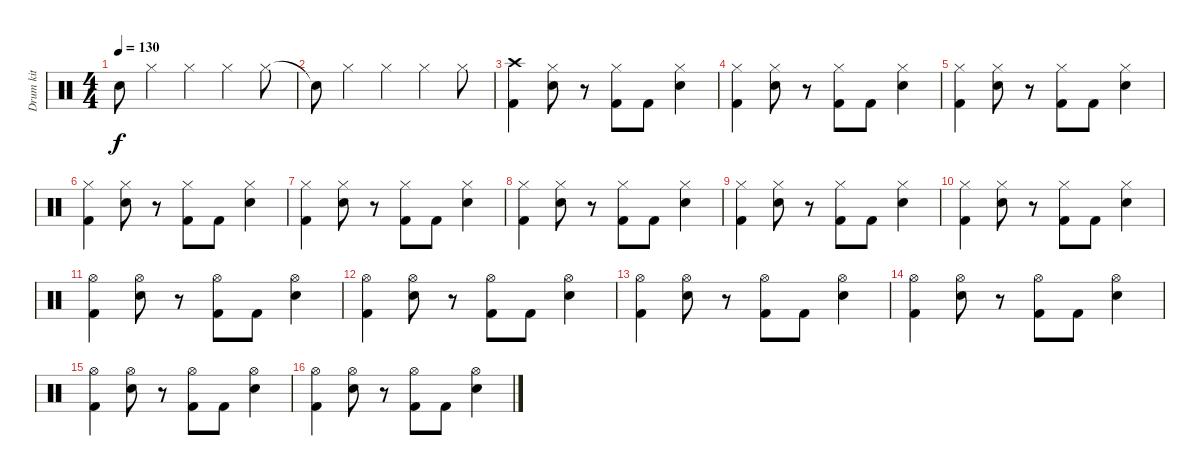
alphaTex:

\track ("Drum kit" "Drum kit") {instrument percussion}
\staff {score}
\articulation defaults
\ts (4 4)
\tempo 130
\clef neutral
\ks c "Snare (hit)"{t}.8{dy f} "Hi-Hat (closed)".4 "Hi-Hat (closed)".4 "Hi-Hat (closed)".4 "Hi-Hat (closed)".8
|
"Snare (hit)"{t}.8 "Hi-Hat (closed)".4 "Hi-Hat (closed)".4 "Hi-Hat (closed)".4 "Hi-Hat (closed)".8 |
("Crash high (hit)" "Kick (hit) 2").4 ("Hi-Hat (closed)" "Electric Snare (hit)").8 r.8 ("Hi-Hat (closed)" "Kick (hit) 2").8 "Kick (hit) 2".8 ("Hi-Hat (closed)" "Electric Snare (hit)").4 |
("Hi-Hat (closed)" "Kick (hit) 2").4 ("Hi-Hat (closed)" "Electric Snare (hit)").8 r.8 ("Hi-Hat (closed)" "Kick (hit) 2").8 "Kick (hit) 2".8 ("Hi-Hat (closed)" "Electric Snare (hit)").4 |
("Hi-Hat (closed)" "Kick (hit) 2").4 ("Hi-Hat (closed)" "Electric Snare (hit)").8 r.8 ("Hi-Hat (closed)" "Kick (hit) 2").8 "Kick (hit) 2".8 ("Hi-Hat (closed)" "Electric Snare (hit)").4 |
("Hi-Hat (closed)" "Kick (hit) 2").4 ("Hi-Hat (closed)" "Electric Snare (hit)").8 r.8 ("Hi-Hat (closed)" "Kick (hit) 2").8 "Kick (hit) 2".8 ("Hi-Hat (closed)" "Electric Snare (hit)").4 |
("Hi-Hat (closed)" "Kick (hit) 2").4 ("Hi-Hat (closed)" "Electric Snare (hit)").8 r.8 ("Hi-Hat (closed)" "Kick (hit) 2").8 "Kick (hit) 2".8 ("Hi-Hat (closed)" "Electric Snare (hit)").4 |
("Hi-Hat (closed)" "Kick (hit) 2").4 ("Hi-Hat (closed)" "Electric Snare (hit)").8 r.8 ("Hi-Hat (closed)" "Kick (hit) 2").8 "Kick (hit) 2".8 ("Hi-Hat (closed)" "Electric Snare (hit)").4 |
("Hi-Hat (closed)" "Kick (hit) 2").4 ("Hi-Hat (closed)" "Electric Snare (hit)").8 r.8 ("Hi-Hat (closed)" "Kick (hit) 2").8 "Kick (hit) 2".8 ("Hi-Hat (closed)" "Electric Snare (hit)").4 |
("Hi-Hat (closed)" "Kick (hit) 2").4 ("Hi-Hat (closed)" "Electric Snare (hit)").8 r.8 ("Hi-Hat (closed)" "Kick (hit) 2").8 "Kick (hit) 2".8 ("Hi-Hat (closed)" "Electric Snare (hit)").4 |
("Hi-Hat (open)" "Kick (hit) 2").4 ("Hi-Hat (open)" "Electric Snare (hit)").8 r.8 ("Hi-Hat (open)" "Kick (hit) 2").8 "Kick (hit) 2".8 ("Hi-Hat (open)" "Electric Snare (hit)").4 |
("Hi-Hat (open)" "Kick (hit) 2").4 ("Hi-Hat (open)" "Electric Snare (hit)").8 r.8 ("Hi-Hat (open)" "Kick (hit) 2").8 "Kick (hit) 2".8 ("Hi-Hat (open)" "Electric Snare (hit)").4 |
("Hi-Hat (open)" "Kick (hit) 2").4 ("Hi-Hat (open)" "Electric Snare (hit)").8 r.8 ("Hi-Hat (open)" "Kick (hit) 2").8 "Kick (hit) 2".8 ("Hi-Hat (open)" "Electric Snare (hit)").4 |
("Hi-Hat (open)" "Kick (hit) 2").4 ("Hi-Hat (open)" "Electric Snare (hit)").8 r.8 ("Hi-Hat (open)" "Kick (hit) 2").8 "Kick (hit) 2".8 ("Hi-Hat (open)" "Electric Snare (hit)").4 |
("Hi-Hat (open)" "Kick (hit) 2").4 ("Hi-Hat (open)" "Electric Snare (hit)").8 r.8 ("Hi-Hat (open)" "Kick (hit) 2").8 "Kick (hit) 2".8 ("Hi-Hat (open)" "Electric Snare (hit)").4 |
("Hi-Hat (open)" "Kick (hit) 2").4 ("Hi-Hat (open)" "Electric Snare (hit)").8 r.8 ("Hi-Hat (open)" "Kick (hit) 2").8 "Kick (hit) 2".8 ("Hi-Hat (open)" "Electric Snare (hit)").4
